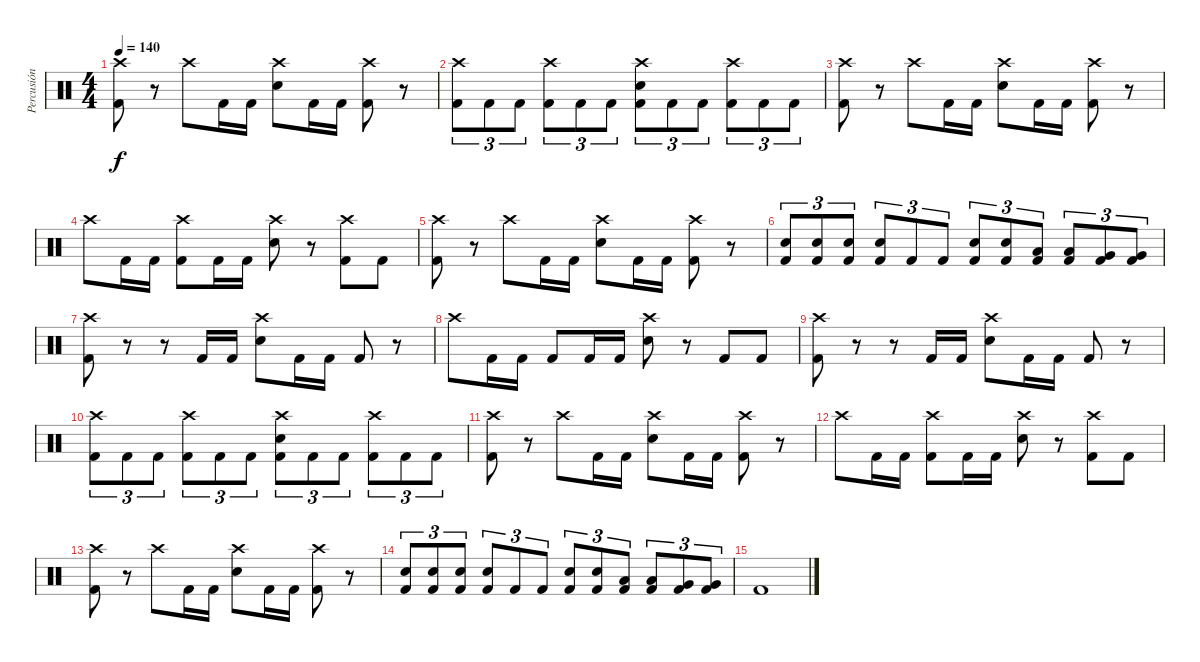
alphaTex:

\track ("Percusión" "Percusión") {instrument percussion}
\staff {score}
\articulation defaults
\ts (4 4)
\tempo 140
\clef neutral
\ks c
("Crash high (hit)" "Kick (hit) 2").8{dy f} r.8 "Crash high (hit)".8 "Kick (hit) 2".16 "Kick (hit) 2".16 ("Crash high (hit)" "Electric Snare (hit)").8 "Kick (hit) 2".16 "Kick (hit) 2".16 ("Crash high (hit)" "Kick (hit) 2").8 r.8 |
("Crash high (hit)" "Kick (hit) 2").8{tu (3 2)} "Kick (hit) 2".8{tu (3 2)} "Kick (hit) 2".8{tu (3 2)} ("Crash high (hit)" "Kick (hit) 2").8{tu (3 2)} "Kick (hit) 2".8{tu (3 2)} "Kick (hit) 2".8{tu (3 2)} ("Crash high (hit)" "Electric Snare (hit)" "Kick (hit) 2").8{tu (3 2)} "Kick (hit) 2".8{tu (3 2)} "Kick (hit) 2".8{tu (3 2)} ("Crash high (hit)" "Kick (hit) 2").8{tu (3 2)} "Kick (hit) 2".8{tu (3 2)} "Kick (hit) 2".8{tu (3 2)} |
("Crash high (hit)" "Kick (hit) 2").8 r.8 "Crash high (hit)".8 "Kick (hit) 2".16 "Kick (hit) 2".16 ("Crash high (hit)" "Electric Snare (hit)").8 "Kick (hit) 2".16 "Kick (hit) 2".16 ("Crash high (hit)" "Kick (hit) 2").8 r.8 |
"Crash high (hit)".8 "Kick (hit) 2".16 "Kick (hit) 2".16 ("Crash high (hit)" "Kick (hit) 2").8 "Kick (hit) 2".16 "Kick (hit) 2".16 ("Crash high (hit)" "Electric Snare (hit)").8 r.8 ("Crash high (hit)" "Kick (hit) 2").8 "Kick (hit) 2".8 |
("Crash high (hit)" "Kick (hit) 2").8 r.8 "Crash high (hit)".8 "Kick (hit) 2".16 "Kick (hit) 2".16 ("Crash high (hit)" "Electric Snare (hit)").8 "Kick (hit) 2".16 "Kick (hit) 2".16 ("Crash high (hit)" "Kick (hit) 2").8 r.8 |
("Electric Snare (hit)" "Kick (hit) 2").8{tu (3 2)} ("Electric Snare (hit)" "Kick (hit) 2").8{tu (3 2)} ("Electric Snare (hit)" "Kick (hit) 2").8{tu (3 2)} ("Electric Snare (hit)" "Kick (hit) 2").8{tu (3 2)} "Kick (hit) 2".8{tu (3 2)} "Kick (hit) 2".8{tu (3 2)} ("Electric Snare (hit)" "Kick (hit) 2").8{tu (3 2)} ("Electric Snare (hit)" "Kick (hit) 2").8{tu (3 2)} ("Low Tom (hit)" "Kick (hit) 2").8{tu (3 2)} ("Low Tom (hit)" "Kick (hit) 2").8{tu (3 2)} ("Very Low Tom (hit)" "Kick (hit) 2").8{tu (3 2)} ("Very Low Tom (hit)" "Kick (hit) 2").8{tu (3 2)} |
("Crash high (hit)" "Kick (hit) 2").8 r.8 r.8 "Kick (hit) 2".16 "Kick (hit) 2".16 ("Crash high (hit)" "Electric Snare (hit)").8 "Kick (hit) 2".16 "Kick (hit) 2".16 "Kick (hit) 2".8 r.8 |
"Crash high (hit)".8 "Kick (hit) 2".16 "Kick (hit) 2".16 "Kick (hit) 2".8 "Kick (hit) 2".16 "Kick (hit) 2".16 ("Crash high (hit)" "Electric Snare (hit)").8 r.8 "Kick (hit) 2".8 "Kick (hit) 2".8 |
("Crash high (hit)" "Kick (hit) 2").8 r.8 r.8 "Kick (hit) 2".16 "Kick (hit) 2".16 ("Crash high (hit)" "Electric Snare (hit)").8 "Kick (hit) 2".16 "Kick (hit) 2".16 "Kick (hit) 2".8 r.8 |
("Crash high (hit)" "Kick (hit) 2").8{tu (3 2)} "Kick (hit) 2".8{tu (3 2)} "Kick (hit) 2".8{tu (3 2)} ("Crash high (hit)" "Kick (hit) 2").8{tu (3 2)} "Kick (hit) 2".8{tu (3 2)} "Kick (hit) 2".8{tu (3 2)} ("Crash high (hit)" "Electric Snare (hit)" "Kick (hit) 2").8{tu (3 2)} "Kick (hit) 2".8{tu (3 2)} "Kick (hit) 2".8{tu (3 2)} ("Crash high (hit)" "Kick (hit) 2").8{tu (3 2)} "Kick (hit) 2".8{tu (3 2)} "Kick (hit) 2".8{tu (3 2)} |
("Crash high (hit)" "Kick (hit) 2").8 r.8 "Crash high (hit)".8 "Kick (hit) 2".16 "Kick (hit) 2".16 ("Crash high (hit)" "Electric Snare (hit)").8 "Kick (hit) 2".16 "Kick (hit) 2".16 ("Crash high (hit)" "Kick (hit) 2").8 r.8 |
"Crash high (hit)".8 "Kick (hit) 2".16 "Kick (hit) 2".16 ("Crash high (hit)" "Kick (hit) 2").8 "Kick (hit) 2".16 "Kick (hit) 2".16 ("Crash high (hit)" "Electric Snare (hit)").8 r.8 ("Crash high (hit)" "Kick (hit) 2").8 "Kick (hit) 2".8 |
("Crash high (hit)" "Kick (hit) 2").8 r.8 "Crash high (hit)".8 "Kick (hit) 2".16 "Kick (hit) 2".16 ("Crash high (hit)" "Electric Snare (hit)").8 "Kick (hit) 2".16 "Kick (hit) 2".16 ("Crash high (hit)" "Kick (hit) 2").8 r.8 |
("Electric Snare (hit)" "Kick (hit) 2").8{tu (3 2)} ("Electric Snare (hit)" "Kick (hit) 2").8{tu (3 2)} ("Electric Snare (hit)" "Kick (hit) 2").8{tu (3 2)} ("Electric Snare (hit)" "Kick (hit) 2").8{tu (3 2)} "Kick (hit) 2".8{tu (3 2)} "Kick (hit) 2".8{tu (3 2)} ("Electric Snare (hit)" "Kick (hit) 2").8{tu (3 2)} ("Electric Snare (hit)" "Kick (hit) 2").8{tu (3 2)} ("Low Tom (hit)" "Kick (hit) 2").8{tu (3 2)} ("Low Tom (hit)" "Kick (hit) 2").8{tu (3 2)} ("Very Low Tom (hit)" "Kick (hit) 2").8{tu (3 2)} ("Very Low Tom (hit)" "Kick (hit) 2").8{tu (3 2)} |
"Kick (hit) 2".1
